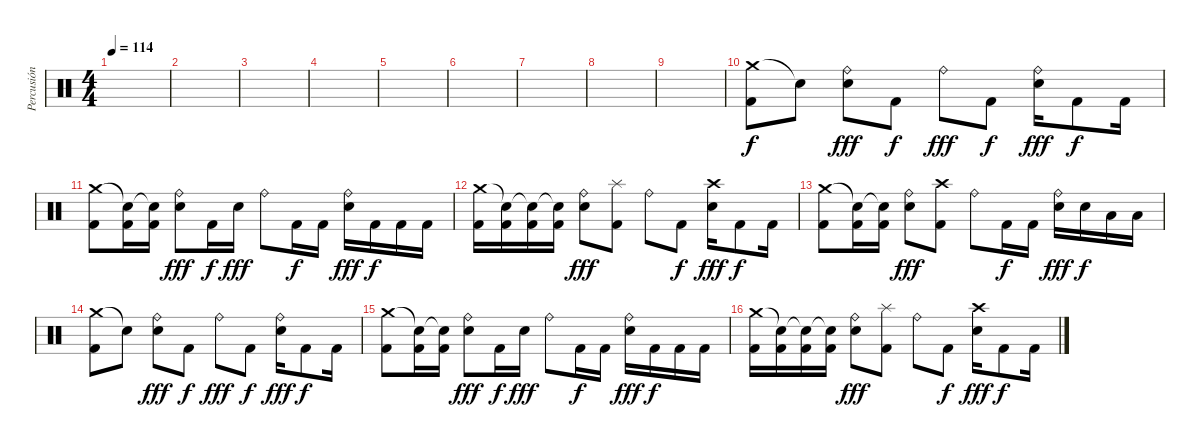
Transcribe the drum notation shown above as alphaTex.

\track ("Percusión" "Percusión") {instrument percussion}
\staff {score}
\articulation defaults
\ts (4 4)
\tempo 114
\clef neutral
\ks c
|
|
|
|
|
|
|
|
|
("Crash medium (hit)" "Kick (hit) 2").8 "Snare (hit)"{t}.8 ("Ride (bell)" "Snare (hit) 2").8{dy fff} "Kick (hit) 2".8{dy f} "Ride (bell)".8{dy fff} "Kick (hit) 2".8{dy f} ("Ride (bell)" "Snare (hit) 2").16{dy fff} "Kick (hit) 2".8{dy f} "Kick (hit) 2".16 |
("Crash medium (hit)" "Kick (hit) 2").8 ("Snare (hit)"{t} "Kick (hit) 2").16 ("Snare (hit)"{t} "Kick (hit) 2").16 ("Ride (bell)" "Snare (hit) 2").8{dy fff} "Kick (hit) 2".16{dy f} "Snare (hit) 2".16{dy fff} "Ride (bell)".8 "Kick (hit) 2".16{dy f} "Kick (hit) 2".16 ("Ride (bell)" "Snare (hit) 2").16{dy fff} "Kick (hit) 2".16{dy f} "Kick (hit) 2".16 "Kick (hit) 2".16 |
("Crash medium (hit)" "Kick (hit) 2").16 ("Snare (hit)"{t} "Kick (hit) 2").16 ("Snare (hit)"{t} "Kick (hit) 2").16 ("Snare (hit)"{t} "Kick (hit) 2").16 ("Ride (bell)" "Snare (hit) 2").8{dy fff} ("Splash (hit)" "Kick (hit) 2").8 "Ride (bell)".8 "Kick (hit) 2".8{dy f} ("Crash high (hit)" "Snare (hit) 2").16{dy fff} "Kick (hit) 2".8{dy f} "Kick (hit) 2".16 |
("Crash medium (hit)" "Kick (hit) 2").8 ("Snare (hit)"{t} "Kick (hit) 2").16 ("Snare (hit)"{t} "Kick (hit) 2").16 ("Ride (bell)" "Snare (hit) 2").8{dy fff} ("Crash high (hit)" "Kick (hit) 2").8 "Ride (bell)".8 "Kick (hit) 2".16{dy f} "Kick (hit) 2".16 ("Ride (bell)" "Snare (hit) 2").16{dy fff} "Snare (hit) 2".16{dy f} "Low Floor Tom (hit)".16 "Low Floor Tom (hit)".16 |
("Crash medium (hit)" "Kick (hit) 2").8 "Snare (hit)"{t}.8 ("Ride (bell)" "Snare (hit) 2").8{dy fff} "Kick (hit) 2".8{dy f} "Ride (bell)".8{dy fff} "Kick (hit) 2".8{dy f} ("Ride (bell)" "Snare (hit) 2").16{dy fff} "Kick (hit) 2".8{dy f} "Kick (hit) 2".16 |
("Crash medium (hit)" "Kick (hit) 2").8 ("Snare (hit)"{t} "Kick (hit) 2").16 ("Snare (hit)"{t} "Kick (hit) 2").16 ("Ride (bell)" "Snare (hit) 2").8{dy fff} "Kick (hit) 2".16{dy f} "Snare (hit) 2".16{dy fff} "Ride (bell)".8 "Kick (hit) 2".16{dy f} "Kick (hit) 2".16 ("Ride (bell)" "Snare (hit) 2").16{dy fff} "Kick (hit) 2".16{dy f} "Kick (hit) 2".16 "Kick (hit) 2".16 |
("Crash medium (hit)" "Kick (hit) 2").16 ("Snare (hit)"{t} "Kick (hit) 2").16 ("Snare (hit)"{t} "Kick (hit) 2").16 ("Snare (hit)"{t} "Kick (hit) 2").16 ("Ride (bell)" "Snare (hit) 2").8{dy fff} ("Splash (hit)" "Kick (hit) 2").8 "Ride (bell)".8 "Kick (hit) 2".8{dy f} ("Crash high (hit)" "Snare (hit) 2").16{dy fff} "Kick (hit) 2".8{dy f} "Kick (hit) 2".16
